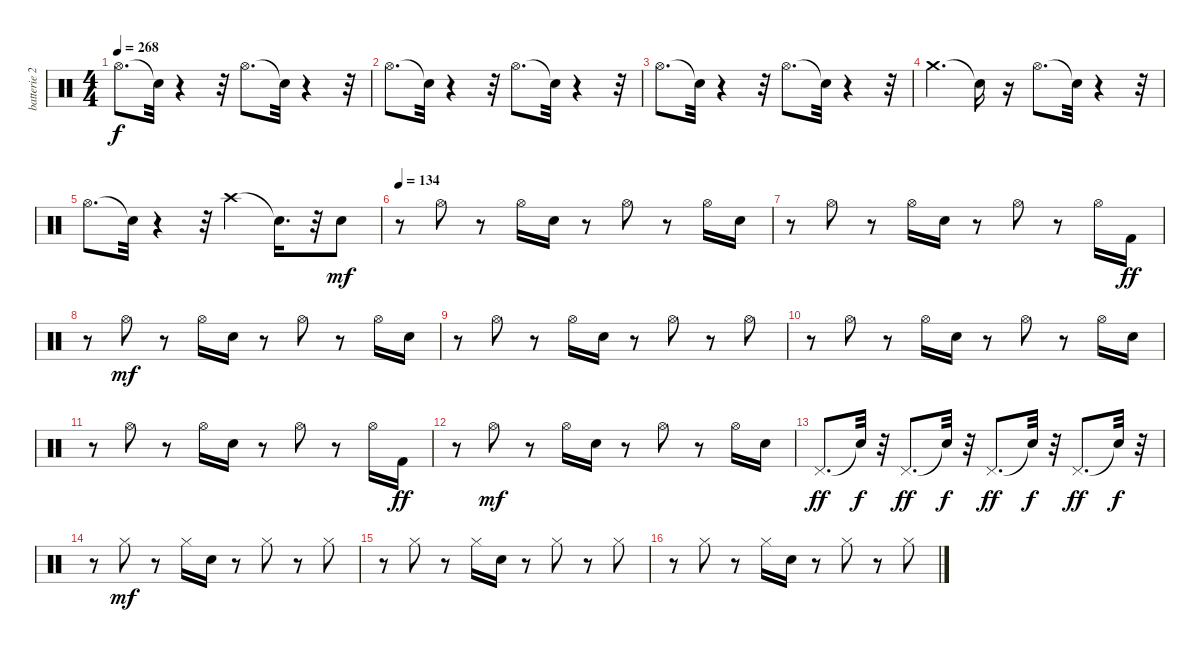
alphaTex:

\track ("batterie 2" "batterie 2") {instrument percussion}
\staff {score}
\articulation defaults
\ts (4 4)
\tempo 268
\clef neutral
\ks c "Hi-Hat (open)".8{d dy f} "Snare (hit)"{t}.32
r.4 r.32 "Hi-Hat (open)".8{d} "Snare (hit)"{t}.32 r.4 r.32 |
"Hi-Hat (open)".8{d} "Snare (hit)"{t}.32 r.4 r.32 "Hi-Hat (open)".8{d} "Snare (hit)"{t}.32 r.4 r.32 |
"Hi-Hat (open)".8{d} "Snare (hit)"{t}.32 r.4 r.32 "Hi-Hat (open)".8{d} "Snare (hit)"{t}.32 r.4 r.32 |
"Crash medium (hit)".4{d} "Snare (hit)"{t}.16 r.16 "Hi-Hat (open)".8{d} "Snare (hit)"{t}.32 r.4 r.32 |
"Hi-Hat (open)".8{d} "Snare (hit)"{t}.32 r.4 r.32 "Crash high (hit)".4 "Snare (hit)"{t}.16{d} r.32 "Electric Snare (hit)".8{dy mf} |
\tempo 134
r.8 "Hi-Hat (open)".8 r.8 "Hi-Hat (open)".16 "Electric Snare (hit)".16 r.8 "Hi-Hat (open)".8 r.8 "Hi-Hat (open)".16 "Electric Snare (hit)".16 |
r.8 "Hi-Hat (open)".8 r.8 "Hi-Hat (open)".16 "Electric Snare (hit)".16 r.8 "Hi-Hat (open)".8 r.8 "Hi-Hat (open)".16 "Kick (hit) 2".16{dy ff} |
r.8 "Hi-Hat (open)".8{dy mf} r.8 "Hi-Hat (open)".16 "Electric Snare (hit)".16 r.8 "Hi-Hat (open)".8 r.8 "Hi-Hat (open)".16 "Electric Snare (hit)".16 |
r.8 "Hi-Hat (open)".8 r.8 "Hi-Hat (open)".16 "Electric Snare (hit)".16 r.8 "Hi-Hat (open)".8 r.8 "Hi-Hat (open)".8 |
r.8 "Hi-Hat (open)".8 r.8 "Hi-Hat (open)".16 "Electric Snare (hit)".16 r.8 "Hi-Hat (open)".8 r.8 "Hi-Hat (open)".16 "Electric Snare (hit)".16 |
r.8 "Hi-Hat (open)".8 r.8 "Hi-Hat (open)".16 "Electric Snare (hit)".16 r.8 "Hi-Hat (open)".8 r.8 "Hi-Hat (open)".16 "Kick (hit) 2".16{dy ff} |
r.8 "Hi-Hat (open)".8{dy mf} r.8 "Hi-Hat (open)".16 "Electric Snare (hit)".16 r.8 "Hi-Hat (open)".8 r.8 "Hi-Hat (open)".16 "Electric Snare (hit)".16 |
"Pedal Hi-Hat (hit)".8{d dy ff} "Snare (hit)"{t}.32{dy f} r.32 "Pedal Hi-Hat (hit)".8{d dy ff} "Snare (hit)"{t}.32{dy f} r.32 "Pedal Hi-Hat (hit)".8{d dy ff} "Snare (hit)"{t}.32{dy f} r.32 "Pedal Hi-Hat (hit)".8{d dy ff} "Snare (hit)"{t}.32{dy f} r.32 |
r.8 "Hi-Hat (closed)".8{dy mf} r.8 "Hi-Hat (closed)".16 "Electric Snare (hit)".16 r.8 "Hi-Hat (closed)".8 r.8 "Hi-Hat (closed)".8 |
r.8 "Hi-Hat (closed)".8 r.8 "Hi-Hat (closed)".16 "Electric Snare (hit)".16 r.8 "Hi-Hat (closed)".8 r.8 "Hi-Hat (closed)".8 |
r.8 "Hi-Hat (closed)".8 r.8 "Hi-Hat (closed)".16 "Electric Snare (hit)".16 r.8 "Hi-Hat (closed)".8 r.8 "Hi-Hat (closed)".8
